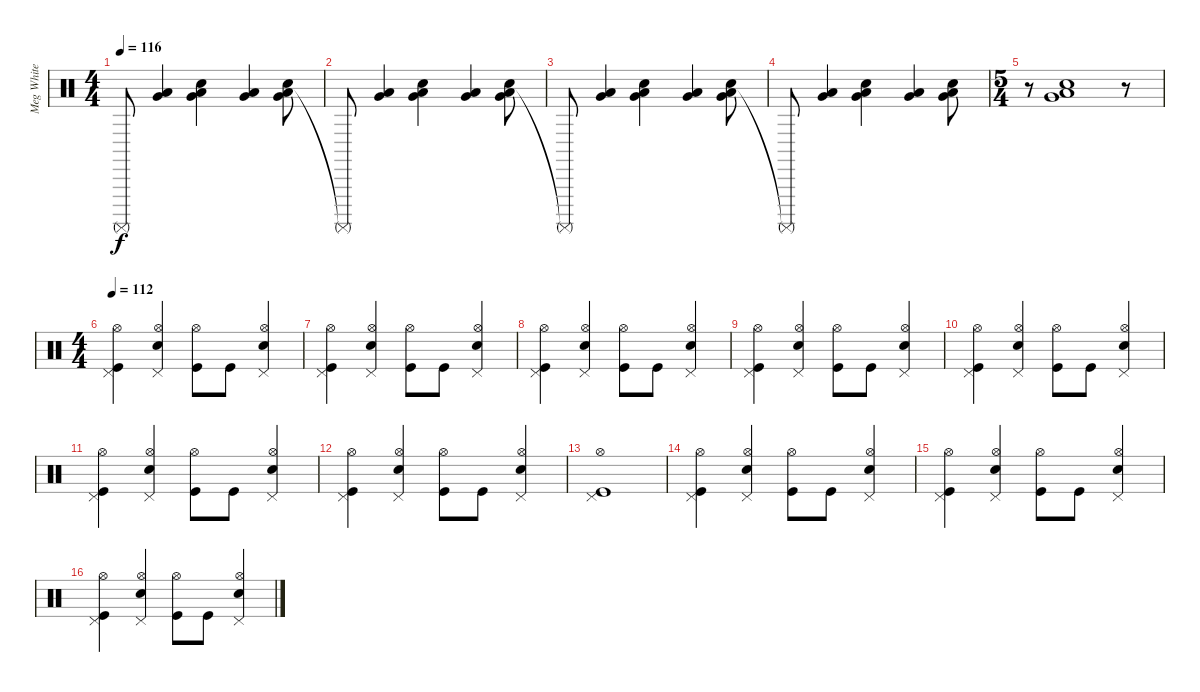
\track ("Meg White" "Meg White") {instrument percussion}
\staff {score}
\articulation defaults
\ts (4 4)
\tempo 116
\clef neutral
\ks c "Surdo (mute)"{t}.8{dy f}
("Low Floor Tom (hit)" "Very Low Tom (hit)").4 ("Low Floor Tom (hit)" "Electric Snare (hit)" "Very Low Tom (hit)").4 ("Low Floor Tom (hit)" "Very Low Tom (hit)").4 ("Low Floor Tom (hit)" "Electric Snare (hit)" "Very Low Tom (hit)").8 |
"Surdo (mute)"{t}.8 ("Low Floor Tom (hit)" "Very Low Tom (hit)").4 ("Low Floor Tom (hit)" "Electric Snare (hit)" "Very Low Tom (hit)").4 ("Low Floor Tom (hit)" "Very Low Tom (hit)").4 ("Low Floor Tom (hit)" "Electric Snare (hit)" "Very Low Tom (hit)").8 |
"Surdo (mute)"{t}.8 ("Low Floor Tom (hit)" "Very Low Tom (hit)").4 ("Low Floor Tom (hit)" "Electric Snare (hit)" "Very Low Tom (hit)").4 ("Low Floor Tom (hit)" "Very Low Tom (hit)").4 ("Low Floor Tom (hit)" "Electric Snare (hit)" "Very Low Tom (hit)").8 |
"Surdo (mute)"{t}.8 ("Low Floor Tom (hit)" "Very Low Tom (hit)").4 ("Low Floor Tom (hit)" "Electric Snare (hit)" "Very Low Tom (hit)").4 ("Low Floor Tom (hit)" "Very Low Tom (hit)").4 ("Low Floor Tom (hit)" "Electric Snare (hit)" "Very Low Tom (hit)").8 |
\ts (5 4)
r.8 ("Low Floor Tom (hit)" "Electric Snare (hit)" "Very Low Tom (hit)").1 r.8 |
\ts (4 4)
\tempo 112
("Kick (hit)" "Pedal Hi-Hat (hit)" "Hi-Hat (open)").4 ("Snare (hit) 2" "Pedal Hi-Hat (hit)" "Hi-Hat (open)").4 ("Kick (hit)" "Hi-Hat (open)").8 "Kick (hit)".8 ("Snare (hit) 2" "Pedal Hi-Hat (hit)" "Hi-Hat (open)").4 |
("Kick (hit)" "Pedal Hi-Hat (hit)" "Hi-Hat (open)").4 ("Snare (hit) 2" "Pedal Hi-Hat (hit)" "Hi-Hat (open)").4 ("Kick (hit)" "Hi-Hat (open)").8 "Kick (hit)".8 ("Snare (hit) 2" "Pedal Hi-Hat (hit)" "Hi-Hat (open)").4 |
("Kick (hit)" "Pedal Hi-Hat (hit)" "Hi-Hat (open)").4 ("Snare (hit) 2" "Pedal Hi-Hat (hit)" "Hi-Hat (open)").4 ("Kick (hit)" "Hi-Hat (open)").8 "Kick (hit)".8 ("Snare (hit) 2" "Pedal Hi-Hat (hit)" "Hi-Hat (open)").4 |
("Kick (hit)" "Pedal Hi-Hat (hit)" "Hi-Hat (open)").4 ("Snare (hit) 2" "Pedal Hi-Hat (hit)" "Hi-Hat (open)").4 ("Kick (hit)" "Hi-Hat (open)").8 "Kick (hit)".8 ("Snare (hit) 2" "Pedal Hi-Hat (hit)" "Hi-Hat (open)").4 |
("Kick (hit)" "Pedal Hi-Hat (hit)" "Hi-Hat (open)").4 ("Snare (hit) 2" "Pedal Hi-Hat (hit)" "Hi-Hat (open)").4 ("Kick (hit)" "Hi-Hat (open)").8 "Kick (hit)".8 ("Snare (hit) 2" "Pedal Hi-Hat (hit)" "Hi-Hat (open)").4 |
("Kick (hit)" "Pedal Hi-Hat (hit)" "Hi-Hat (open)").4 ("Snare (hit) 2" "Pedal Hi-Hat (hit)" "Hi-Hat (open)").4 ("Kick (hit)" "Hi-Hat (open)").8 "Kick (hit)".8 ("Snare (hit) 2" "Pedal Hi-Hat (hit)" "Hi-Hat (open)").4 |
("Kick (hit)" "Pedal Hi-Hat (hit)" "Hi-Hat (open)").4 ("Snare (hit) 2" "Pedal Hi-Hat (hit)" "Hi-Hat (open)").4 ("Kick (hit)" "Hi-Hat (open)").8 "Kick (hit)".8 ("Snare (hit) 2" "Pedal Hi-Hat (hit)" "Hi-Hat (open)").4 |
("Kick (hit)" "Pedal Hi-Hat (hit)" "Hi-Hat (open)").1 |
("Kick (hit)" "Pedal Hi-Hat (hit)" "Hi-Hat (open)").4 ("Snare (hit) 2" "Pedal Hi-Hat (hit)" "Hi-Hat (open)").4 ("Kick (hit)" "Hi-Hat (open)").8 "Kick (hit)".8 ("Snare (hit) 2" "Pedal Hi-Hat (hit)" "Hi-Hat (open)").4 |
("Kick (hit)" "Pedal Hi-Hat (hit)" "Hi-Hat (open)").4 ("Snare (hit) 2" "Pedal Hi-Hat (hit)" "Hi-Hat (open)").4 ("Kick (hit)" "Hi-Hat (open)").8 "Kick (hit)".8 ("Snare (hit) 2" "Pedal Hi-Hat (hit)" "Hi-Hat (open)").4 |
("Kick (hit)" "Pedal Hi-Hat (hit)" "Hi-Hat (open)").4 ("Snare (hit) 2" "Pedal Hi-Hat (hit)" "Hi-Hat (open)").4 ("Kick (hit)" "Hi-Hat (open)").8 "Kick (hit)".8 ("Snare (hit) 2" "Pedal Hi-Hat (hit)" "Hi-Hat (open)").4
